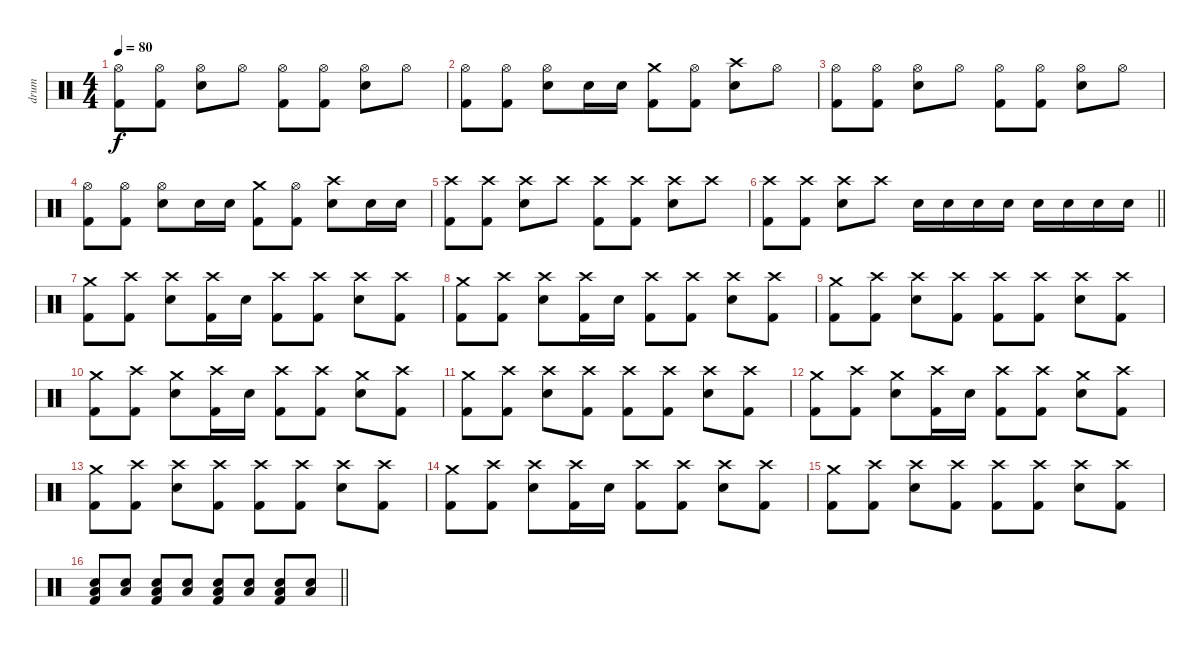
\track ("drum" "drum") {instrument percussion}
\staff {score}
\articulation defaults
\ts (4 4)
\tempo 80
\clef neutral
\ks c
("Hi-Hat (open)" "Kick (hit) 2").8{dy f} ("Hi-Hat (open)" "Kick (hit) 2").8 ("Hi-Hat (open)" "Snare (hit) 2").8 "Hi-Hat (open)".8 ("Hi-Hat (open)" "Kick (hit) 2").8 ("Hi-Hat (open)" "Kick (hit) 2").8 ("Hi-Hat (open)" "Snare (hit) 2").8 "Hi-Hat (open)".8 |
("Hi-Hat (open)" "Kick (hit) 2").8 ("Hi-Hat (open)" "Kick (hit) 2").8 ("Hi-Hat (open)" "Snare (hit) 2").8 "Snare (hit) 2".16 "Snare (hit) 2".16 ("Crash medium (hit)" "Kick (hit) 2").8 ("Hi-Hat (open)" "Kick (hit) 2").8 ("Crash high (hit)" "Snare (hit) 2").8 "Hi-Hat (open)".8 |
("Hi-Hat (open)" "Kick (hit) 2").8 ("Hi-Hat (open)" "Kick (hit) 2").8 ("Hi-Hat (open)" "Snare (hit) 2").8 "Hi-Hat (open)".8 ("Hi-Hat (open)" "Kick (hit) 2").8 ("Hi-Hat (open)" "Kick (hit) 2").8 ("Hi-Hat (open)" "Snare (hit) 2").8 "Hi-Hat (open)".8 |
("Hi-Hat (open)" "Kick (hit) 2").8 ("Hi-Hat (open)" "Kick (hit) 2").8 ("Hi-Hat (open)" "Snare (hit) 2").8 "Snare (hit) 2".16 "Snare (hit) 2".16 ("Crash medium (hit)" "Kick (hit) 2").8 ("Hi-Hat (open)" "Kick (hit) 2").8 ("Crash high (hit)" "Snare (hit) 2").8 "Snare (hit) 2".16 "Snare (hit) 2".16 |
("Crash high (hit)" "Kick (hit) 2").8 ("Crash high (hit)" "Kick (hit) 2").8 ("Crash high (hit)" "Snare (hit) 2").8 "Crash high (hit)".8 ("Crash high (hit)" "Kick (hit) 2").8 ("Crash high (hit)" "Kick (hit) 2").8 ("Crash high (hit)" "Snare (hit) 2").8 "Crash high (hit)".8 |
\barLineRight lightlight
("Crash high (hit)" "Kick (hit) 2").8 ("Crash high (hit)" "Kick (hit) 2").8 ("Crash high (hit)" "Snare (hit) 2").8 "Crash high (hit)".8 "Snare (hit) 2".16 "Snare (hit) 2".16 "Snare (hit) 2".16 "Snare (hit) 2".16 "Snare (hit) 2".16 "Snare (hit) 2".16 "Snare (hit) 2".16 "Snare (hit) 2".16 |
\section ("" "")
("Crash medium (hit)" "Kick (hit) 2").8 ("Crash high (hit)" "Kick (hit) 2").8 ("Crash high (hit)" "Snare (hit) 2").8 ("Crash high (hit)" "Kick (hit) 2").16 "Snare (hit) 2".16 ("Crash high (hit)" "Kick (hit) 2").8 ("Crash high (hit)" "Kick (hit) 2").8 ("Crash high (hit)" "Snare (hit) 2").8 ("Crash high (hit)" "Kick (hit) 2").8 |
("Crash medium (hit)" "Kick (hit) 2").8 ("Crash high (hit)" "Kick (hit) 2").8 ("Crash high (hit)" "Snare (hit) 2").8 ("Crash high (hit)" "Kick (hit) 2").16 "Snare (hit) 2".16 ("Crash high (hit)" "Kick (hit) 2").8 ("Crash high (hit)" "Kick (hit) 2").8 ("Crash high (hit)" "Snare (hit) 2").8 ("Crash high (hit)" "Kick (hit) 2").8 |
("Crash medium (hit)" "Kick (hit) 2").8 ("Crash high (hit)" "Kick (hit) 2").8 ("Crash high (hit)" "Snare (hit) 2").8 ("Crash high (hit)" "Kick (hit) 2").8 ("Crash high (hit)" "Kick (hit) 2").8 ("Crash high (hit)" "Kick (hit) 2").8 ("Crash high (hit)" "Snare (hit) 2").8 ("Crash high (hit)" "Kick (hit) 2").8 |
("Crash medium (hit)" "Kick (hit) 2").8 ("Crash high (hit)" "Kick (hit) 2").8 ("Crash medium (hit)" "Snare (hit) 2").8 ("Crash high (hit)" "Kick (hit) 2").16 "Snare (hit) 2".16 ("Crash high (hit)" "Kick (hit) 2").8 ("Crash high (hit)" "Kick (hit) 2").8 ("Crash medium (hit)" "Snare (hit) 2").8 ("Crash high (hit)" "Kick (hit) 2").8 |
("Crash medium (hit)" "Kick (hit) 2").8 ("Crash high (hit)" "Kick (hit) 2").8 ("Crash high (hit)" "Snare (hit) 2").8 ("Crash high (hit)" "Kick (hit) 2").8 ("Crash high (hit)" "Kick (hit) 2").8 ("Crash high (hit)" "Kick (hit) 2").8 ("Crash high (hit)" "Snare (hit) 2").8 ("Crash high (hit)" "Kick (hit) 2").8 |
("Crash medium (hit)" "Kick (hit) 2").8 ("Crash high (hit)" "Kick (hit) 2").8 ("Crash medium (hit)" "Snare (hit) 2").8 ("Crash high (hit)" "Kick (hit) 2").16 "Snare (hit) 2".16 ("Crash high (hit)" "Kick (hit) 2").8 ("Crash high (hit)" "Kick (hit) 2").8 ("Crash medium (hit)" "Snare (hit) 2").8 ("Crash high (hit)" "Kick (hit) 2").8 |
("Crash medium (hit)" "Kick (hit) 2").8 ("Crash high (hit)" "Kick (hit) 2").8 ("Crash high (hit)" "Snare (hit) 2").8 ("Crash high (hit)" "Kick (hit) 2").8 ("Crash high (hit)" "Kick (hit) 2").8 ("Crash high (hit)" "Kick (hit) 2").8 ("Crash high (hit)" "Snare (hit) 2").8 ("Crash high (hit)" "Kick (hit) 2").8 |
("Crash medium (hit)" "Kick (hit) 2").8 ("Crash high (hit)" "Kick (hit) 2").8 ("Crash high (hit)" "Snare (hit) 2").8 ("Crash high (hit)" "Kick (hit) 2").16 "Snare (hit) 2".16 ("Crash high (hit)" "Kick (hit) 2").8 ("Crash high (hit)" "Kick (hit) 2").8 ("Crash high (hit)" "Snare (hit) 2").8 ("Crash high (hit)" "Kick (hit) 2").8 |
("Crash medium (hit)" "Kick (hit) 2").8 ("Crash high (hit)" "Kick (hit) 2").8 ("Crash high (hit)" "Snare (hit) 2").8 ("Crash high (hit)" "Kick (hit) 2").8 ("Crash high (hit)" "Kick (hit) 2").8 ("Crash high (hit)" "Kick (hit) 2").8 ("Crash high (hit)" "Snare (hit) 2").8 ("Crash high (hit)" "Kick (hit) 2").8 |
\barLineRight lightlight
("Low Floor Tom (hit)" "Snare (hit) 2" "Kick (hit) 2").8 ("Low Floor Tom (hit)" "Snare (hit) 2").8 ("Low Floor Tom (hit)" "Snare (hit) 2" "Kick (hit) 2").8 ("Low Floor Tom (hit)" "Snare (hit) 2").8 ("Low Floor Tom (hit)" "Snare (hit) 2" "Kick (hit) 2").8 ("Low Floor Tom (hit)" "Snare (hit) 2").8 ("Low Floor Tom (hit)" "Snare (hit) 2" "Kick (hit) 2").8 ("Low Floor Tom (hit)" "Snare (hit) 2").8
